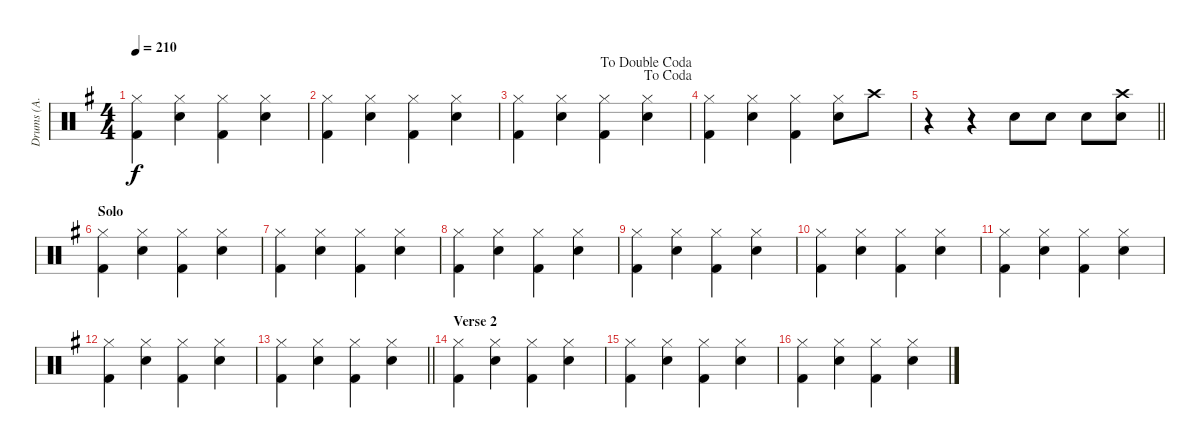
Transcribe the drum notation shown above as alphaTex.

\track ("Drums (А. Манякин)" "Drums (А. ") {instrument percussion}
\staff {score}
\articulation defaults
\ts (4 4)
\tempo 210
\clef neutral
\ks g
("Hi-Hat (closed)" "Kick (hit) 2").4{dy f} ("Hi-Hat (closed)" "Snare (hit) 2").4 ("Hi-Hat (closed)" "Kick (hit) 2").4 ("Hi-Hat (closed)" "Snare (hit) 2").4 |
("Hi-Hat (closed)" "Kick (hit) 2").4 ("Hi-Hat (closed)" "Snare (hit) 2").4 ("Hi-Hat (closed)" "Kick (hit) 2").4 ("Hi-Hat (closed)" "Snare (hit) 2").4 |
\jump dacoda
\jump dadoublecoda
("Hi-Hat (closed)" "Kick (hit) 2").4 ("Hi-Hat (closed)" "Snare (hit) 2").4 ("Hi-Hat (closed)" "Kick (hit) 2").4 ("Hi-Hat (closed)" "Snare (hit) 2").4 |
("Hi-Hat (closed)" "Kick (hit) 2").4 ("Hi-Hat (closed)" "Snare (hit) 2").4 ("Hi-Hat (closed)" "Kick (hit) 2").4 ("Hi-Hat (closed)" "Snare (hit) 2").8 "Crash high (hit)".8 |
\barLineRight lightlight
r.4 r.4 "Snare (hit) 2".8 "Snare (hit) 2".8 "Snare (hit) 2".8 ("Crash high (hit)" "Snare (hit) 2").8 |
\section ("" "Solo")
("Hi-Hat (closed)" "Kick (hit) 2").4 ("Hi-Hat (closed)" "Snare (hit) 2").4 ("Hi-Hat (closed)" "Kick (hit) 2").4 ("Hi-Hat (closed)" "Snare (hit) 2").4 |
("Hi-Hat (closed)" "Kick (hit) 2").4 ("Hi-Hat (closed)" "Snare (hit) 2").4 ("Hi-Hat (closed)" "Kick (hit) 2").4 ("Hi-Hat (closed)" "Snare (hit) 2").4 |
("Hi-Hat (closed)" "Kick (hit) 2").4 ("Hi-Hat (closed)" "Snare (hit) 2").4 ("Hi-Hat (closed)" "Kick (hit) 2").4 ("Hi-Hat (closed)" "Snare (hit) 2").4 |
("Hi-Hat (closed)" "Kick (hit) 2").4 ("Hi-Hat (closed)" "Snare (hit) 2").4 ("Hi-Hat (closed)" "Kick (hit) 2").4 ("Hi-Hat (closed)" "Snare (hit) 2").4 |
("Hi-Hat (closed)" "Kick (hit) 2").4 ("Hi-Hat (closed)" "Snare (hit) 2").4 ("Hi-Hat (closed)" "Kick (hit) 2").4 ("Hi-Hat (closed)" "Snare (hit) 2").4 |
("Hi-Hat (closed)" "Kick (hit) 2").4 ("Hi-Hat (closed)" "Snare (hit) 2").4 ("Hi-Hat (closed)" "Kick (hit) 2").4 ("Hi-Hat (closed)" "Snare (hit) 2").4 |
("Hi-Hat (closed)" "Kick (hit) 2").4 ("Hi-Hat (closed)" "Snare (hit) 2").4 ("Hi-Hat (closed)" "Kick (hit) 2").4 ("Hi-Hat (closed)" "Snare (hit) 2").4 |
\barLineRight lightlight
("Hi-Hat (closed)" "Kick (hit) 2").4 ("Hi-Hat (closed)" "Snare (hit) 2").4 ("Hi-Hat (closed)" "Kick (hit) 2").4 ("Hi-Hat (closed)" "Snare (hit) 2").4 |
\section ("" "Verse 2")
("Hi-Hat (closed)" "Kick (hit) 2").4 ("Hi-Hat (closed)" "Snare (hit) 2").4 ("Hi-Hat (closed)" "Kick (hit) 2").4 ("Hi-Hat (closed)" "Snare (hit) 2").4 |
("Hi-Hat (closed)" "Kick (hit) 2").4 ("Hi-Hat (closed)" "Snare (hit) 2").4 ("Hi-Hat (closed)" "Kick (hit) 2").4 ("Hi-Hat (closed)" "Snare (hit) 2").4 |
("Hi-Hat (closed)" "Kick (hit) 2").4 ("Hi-Hat (closed)" "Snare (hit) 2").4 ("Hi-Hat (closed)" "Kick (hit) 2").4 ("Hi-Hat (closed)" "Snare (hit) 2").4
